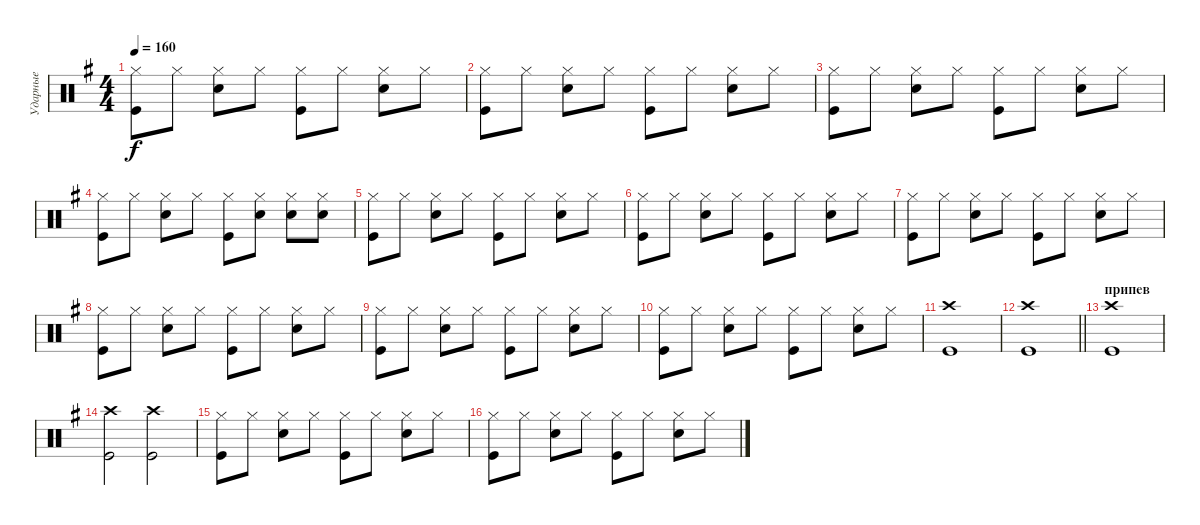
\track ("Ударные" "Ударные") {instrument percussion}
\staff {score}
\articulation defaults
\ts (4 4)
\tempo 160
\clef neutral
\ks eminor
("Hi-Hat (closed)" "Kick (hit)").8{dy f} "Hi-Hat (closed)".8 ("Hi-Hat (closed)" "Electric Snare (hit)").8 "Hi-Hat (closed)".8 ("Hi-Hat (closed)" "Kick (hit)").8 "Hi-Hat (closed)".8 ("Hi-Hat (closed)" "Electric Snare (hit)").8 "Hi-Hat (closed)".8 |
("Hi-Hat (closed)" "Kick (hit)").8 "Hi-Hat (closed)".8 ("Hi-Hat (closed)" "Electric Snare (hit)").8 "Hi-Hat (closed)".8 ("Hi-Hat (closed)" "Kick (hit)").8 "Hi-Hat (closed)".8 ("Hi-Hat (closed)" "Electric Snare (hit)").8 "Hi-Hat (closed)".8 |
("Hi-Hat (closed)" "Kick (hit)").8 "Hi-Hat (closed)".8 ("Hi-Hat (closed)" "Electric Snare (hit)").8 "Hi-Hat (closed)".8 ("Hi-Hat (closed)" "Kick (hit)").8 "Hi-Hat (closed)".8 ("Hi-Hat (closed)" "Electric Snare (hit)").8 "Hi-Hat (closed)".8 |
("Hi-Hat (closed)" "Kick (hit)").8 "Hi-Hat (closed)".8 ("Hi-Hat (closed)" "Electric Snare (hit)").8 "Hi-Hat (closed)".8 ("Hi-Hat (closed)" "Kick (hit)").8 ("Hi-Hat (closed)" "Electric Snare (hit)").8 ("Hi-Hat (closed)" "Electric Snare (hit)").8 ("Hi-Hat (closed)" "Electric Snare (hit)").8 |
("Hi-Hat (closed)" "Kick (hit)").8 "Hi-Hat (closed)".8 ("Hi-Hat (closed)" "Electric Snare (hit)").8 "Hi-Hat (closed)".8 ("Hi-Hat (closed)" "Kick (hit)").8 "Hi-Hat (closed)".8 ("Hi-Hat (closed)" "Electric Snare (hit)").8 "Hi-Hat (closed)".8 |
("Hi-Hat (closed)" "Kick (hit)").8 "Hi-Hat (closed)".8 ("Hi-Hat (closed)" "Electric Snare (hit)").8 "Hi-Hat (closed)".8 ("Hi-Hat (closed)" "Kick (hit)").8 "Hi-Hat (closed)".8 ("Hi-Hat (closed)" "Electric Snare (hit)").8 "Hi-Hat (closed)".8 |
("Hi-Hat (closed)" "Kick (hit)").8 "Hi-Hat (closed)".8 ("Hi-Hat (closed)" "Electric Snare (hit)").8 "Hi-Hat (closed)".8 ("Hi-Hat (closed)" "Kick (hit)").8 "Hi-Hat (closed)".8 ("Hi-Hat (closed)" "Electric Snare (hit)").8 "Hi-Hat (closed)".8 |
("Hi-Hat (closed)" "Kick (hit)").8 "Hi-Hat (closed)".8 ("Hi-Hat (closed)" "Electric Snare (hit)").8 "Hi-Hat (closed)".8 ("Hi-Hat (closed)" "Kick (hit)").8 "Hi-Hat (closed)".8 ("Hi-Hat (closed)" "Electric Snare (hit)").8 "Hi-Hat (closed)".8 |
("Hi-Hat (closed)" "Kick (hit)").8 "Hi-Hat (closed)".8 ("Hi-Hat (closed)" "Electric Snare (hit)").8 "Hi-Hat (closed)".8 ("Hi-Hat (closed)" "Kick (hit)").8 "Hi-Hat (closed)".8 ("Hi-Hat (closed)" "Electric Snare (hit)").8 "Hi-Hat (closed)".8 |
("Hi-Hat (closed)" "Kick (hit)").8 "Hi-Hat (closed)".8 ("Hi-Hat (closed)" "Electric Snare (hit)").8 "Hi-Hat (closed)".8 ("Hi-Hat (closed)" "Kick (hit)").8 "Hi-Hat (closed)".8 ("Hi-Hat (closed)" "Electric Snare (hit)").8 "Hi-Hat (closed)".8 |
("Crash high (hit)" "Kick (hit)").1 |
\barLineRight lightlight
("Crash high (hit)" "Kick (hit)").1 |
\section ("" "припев")
("Crash high (hit)" "Kick (hit)").1 |
("Crash high (hit)" "Kick (hit)").2 ("Crash high (hit)" "Kick (hit)").2 |
("Hi-Hat (closed)" "Kick (hit)").8 "Hi-Hat (closed)".8 ("Hi-Hat (closed)" "Electric Snare (hit)").8 "Hi-Hat (closed)".8 ("Hi-Hat (closed)" "Kick (hit)").8 "Hi-Hat (closed)".8 ("Hi-Hat (closed)" "Electric Snare (hit)").8 "Hi-Hat (closed)".8 |
("Hi-Hat (closed)" "Kick (hit)").8 "Hi-Hat (closed)".8 ("Hi-Hat (closed)" "Electric Snare (hit)").8 "Hi-Hat (closed)".8 ("Hi-Hat (closed)" "Kick (hit)").8 "Hi-Hat (closed)".8 ("Hi-Hat (closed)" "Electric Snare (hit)").8 "Hi-Hat (closed)".8
